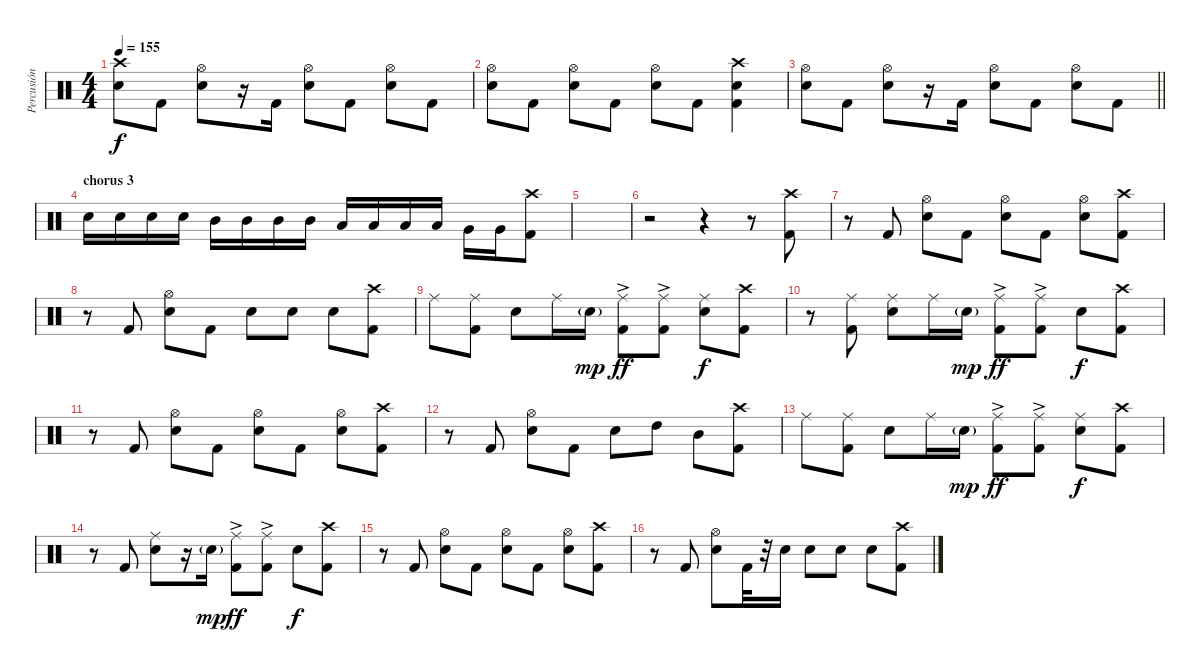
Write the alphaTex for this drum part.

\track ("Percusión" "Percusión") {instrument percussion}
\staff {score}
\articulation defaults
\ts (4 4)
\tempo 155
\clef neutral
\ks c
("Crash high (hit)" "Snare (hit) 2").8{dy f} "Kick (hit) 2".8 ("Hi-Hat (open)" "Snare (hit) 2").8 r.16 "Kick (hit) 2".16 ("Hi-Hat (open)" "Snare (hit) 2").8 "Kick (hit) 2".8 ("Hi-Hat (open)" "Snare (hit) 2").8 "Kick (hit) 2".8 |
("Hi-Hat (open)" "Snare (hit) 2").8 "Kick (hit) 2".8 ("Hi-Hat (open)" "Snare (hit) 2").8 "Kick (hit) 2".8 ("Hi-Hat (open)" "Snare (hit) 2").8 "Kick (hit) 2".8 ("Crash high (hit)" "Snare (hit) 2" "Kick (hit) 2").4 |
\barLineRight lightlight
("Hi-Hat (open)" "Snare (hit) 2").8 "Kick (hit) 2".8 ("Hi-Hat (open)" "Snare (hit) 2").8 r.16 "Kick (hit) 2".16 ("Hi-Hat (open)" "Snare (hit) 2").8 "Kick (hit) 2".8 ("Hi-Hat (open)" "Snare (hit) 2").8 "Kick (hit) 2".8 |
\section ("" "chorus 3")
"Snare (hit) 2".16 "Snare (hit) 2".16 "Snare (hit) 2".16 "Snare (hit) 2".16 "Mid Tom (hit)".16 "Mid Tom (hit)".16 "Mid Tom (hit)".16 "Mid Tom (hit)".16 "Low Tom (hit)".16 "Low Tom (hit)".16 "Low Tom (hit)".16 "Low Tom (hit)".16 "Very Low Tom (hit)".16 "Very Low Tom (hit)".16 ("Crash high (hit)" "Kick (hit) 2").8 |
|
r.2 r.4 r.8 ("Crash high (hit)" "Kick (hit) 2").8 |
r.8 "Kick (hit) 2".8 ("Hi-Hat (open)" "Snare (hit) 2").8 "Kick (hit) 2".8 ("Hi-Hat (open)" "Snare (hit) 2").8 "Kick (hit) 2".8 ("Hi-Hat (open)" "Snare (hit) 2").8 ("Crash high (hit)" "Kick (hit) 2").8 |
r.8 "Kick (hit) 2".8 ("Hi-Hat (open)" "Snare (hit) 2").8 "Kick (hit) 2".8 "Snare (hit) 2".8 "Snare (hit) 2".8 "Snare (hit) 2".8 ("Crash high (hit)" "Kick (hit) 2").8 |
"Ride (middle)".8 ("Ride (middle)" "Kick (hit) 2").8 "Snare (hit) 2".8 "Ride (middle)".16 "Snare (hit) 2"{g}.16{dy mp} ("Ride (middle)"{ac} "Kick (hit) 2").8{dy ff} ("Ride (middle)"{ac} "Kick (hit) 2").8 ("Ride (middle)" "Snare (hit) 2").8{dy f} ("Crash high (hit)" "Kick (hit) 2").8 |
r.8 ("Ride (middle)" "Kick (hit) 2").8 ("Ride (middle)" "Snare (hit) 2").8 "Ride (middle)".16 "Snare (hit) 2"{g}.16{dy mp} ("Ride (middle)"{ac} "Kick (hit) 2").8{dy ff} ("Ride (middle)"{ac} "Kick (hit) 2").8 "Snare (hit) 2".8{dy f} ("Crash high (hit)" "Kick (hit) 2").8 |
r.8 "Kick (hit) 2".8 ("Hi-Hat (open)" "Snare (hit) 2").8 "Kick (hit) 2".8 ("Hi-Hat (open)" "Snare (hit) 2").8 "Kick (hit) 2".8 ("Hi-Hat (open)" "Snare (hit) 2").8 ("Crash high (hit)" "Kick (hit) 2").8 |
r.8 "Kick (hit) 2".8 ("Hi-Hat (open)" "Snare (hit) 2").8 "Kick (hit) 2".8 "Snare (hit) 2".8 "High Tom (hit)".8 "Mid Tom (hit)".8 ("Crash high (hit)" "Kick (hit) 2").8 |
"Ride (middle)".8 ("Ride (middle)" "Kick (hit) 2").8 "Snare (hit) 2".8 "Ride (middle)".16 "Snare (hit) 2"{g}.16{dy mp} ("Ride (middle)"{ac} "Kick (hit) 2").8{dy ff} ("Ride (middle)"{ac} "Kick (hit) 2").8 ("Ride (middle)" "Snare (hit) 2").8{dy f} ("Crash high (hit)" "Kick (hit) 2").8 |
r.8 "Kick (hit) 2".8 ("Ride (middle)" "Snare (hit) 2").8 r.16 "Snare (hit) 2"{g}.16{dy mp} ("Ride (middle)"{ac} "Kick (hit) 2").8{dy ff} ("Ride (middle)"{ac} "Kick (hit) 2").8 "Snare (hit) 2".8{dy f} ("Crash high (hit)" "Kick (hit) 2").8 |
r.8 "Kick (hit) 2".8 ("Hi-Hat (open)" "Snare (hit) 2").8 "Kick (hit) 2".8 ("Hi-Hat (open)" "Snare (hit) 2").8 "Kick (hit) 2".8 ("Hi-Hat (open)" "Snare (hit) 2").8 ("Crash high (hit)" "Kick (hit) 2").8 |
r.8 "Kick (hit) 2".8 ("Hi-Hat (open)" "Snare (hit) 2").8 "Kick (hit) 2".32 r.32 "Snare (hit) 2".16 "Snare (hit) 2".8 "Snare (hit) 2".8 "Snare (hit) 2".8 ("Crash high (hit)" "Kick (hit) 2").8
